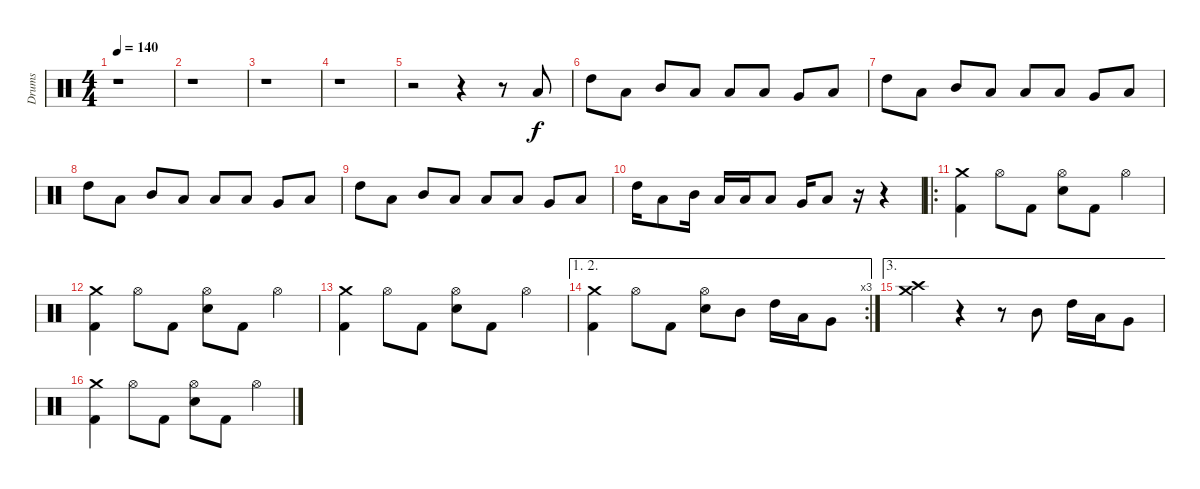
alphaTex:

\track ("Drums" "Drums") {instrument percussion}
\staff {score}
\articulation defaults
\ts (4 4)
\tempo 140
\clef neutral
\ks c
r.1{dy f} |
r.1 |
r.1 |
r.1 |
r.2 r.4 r.8 "Low Floor Tom (hit)".8 |
"High Tom (hit)".8 "Low Floor Tom (hit)".8 "Mid Tom (hit)".8 "Low Floor Tom (hit)".8 "Low Tom (hit)".8 "Low Floor Tom (hit)".8 "Very Low Tom (hit)".8 "Low Floor Tom (hit)".8 |
"High Tom (hit)".8 "Low Floor Tom (hit)".8 "Mid Tom (hit)".8 "Low Floor Tom (hit)".8 "Low Tom (hit)".8 "Low Floor Tom (hit)".8 "Very Low Tom (hit)".8 "Low Floor Tom (hit)".8 |
"High Tom (hit)".8 "Low Floor Tom (hit)".8 "Mid Tom (hit)".8 "Low Floor Tom (hit)".8 "Low Tom (hit)".8 "Low Floor Tom (hit)".8 "Very Low Tom (hit)".8 "Low Floor Tom (hit)".8 |
"High Tom (hit)".8 "Low Floor Tom (hit)".8 "Mid Tom (hit)".8 "Low Floor Tom (hit)".8 "Low Tom (hit)".8 "Low Floor Tom (hit)".8 "Very Low Tom (hit)".8 "Low Floor Tom (hit)".8 |
"High Tom (hit)".16 "Low Floor Tom (hit)".8 "Mid Tom (hit)".16 "Low Floor Tom (hit)".16 "Low Tom (hit)".16 "Low Floor Tom (hit)".8 "Very Low Tom (hit)".16 "Low Floor Tom (hit)".8 r.16 r.4 |
\ro
("Kick (hit) 2" "Crash medium (hit)").4 "Hi-Hat (open)".8 "Kick (hit) 2".8 ("Hi-Hat (open)" "Snare (hit) 2").8 "Kick (hit) 2".8 "Hi-Hat (open)".4 |
("Kick (hit) 2" "Crash medium (hit)").4 "Hi-Hat (open)".8 "Kick (hit) 2".8 ("Hi-Hat (open)" "Snare (hit) 2").8 "Kick (hit) 2".8 "Hi-Hat (open)".4 |
("Kick (hit) 2" "Crash medium (hit)").4 "Hi-Hat (open)".8 "Kick (hit) 2".8 ("Hi-Hat (open)" "Snare (hit) 2").8 "Kick (hit) 2".8 "Hi-Hat (open)".4 |
\ae (1 2)
\rc 3
("Kick (hit) 2" "Crash medium (hit)").4 "Hi-Hat (open)".8 "Kick (hit) 2".8 ("Hi-Hat (open)" "Snare (hit) 2").8 "Mid Tom (hit)".8 "High Tom (hit)".16 "Low Tom (hit)".16 "Very Low Tom (hit)".8 |
\ae 3
("Crash medium (hit)" "Crash high (hit)").4 r.4 r.8 "Mid Tom (hit)".8 "High Tom (hit)".16 "Low Tom (hit)".16 "Very Low Tom (hit)".8 |
("Kick (hit) 2" "Crash medium (hit)").4 "Hi-Hat (open)".8 "Kick (hit) 2".8 ("Hi-Hat (open)" "Snare (hit) 2").8 "Kick (hit) 2".8 "Hi-Hat (open)".4
